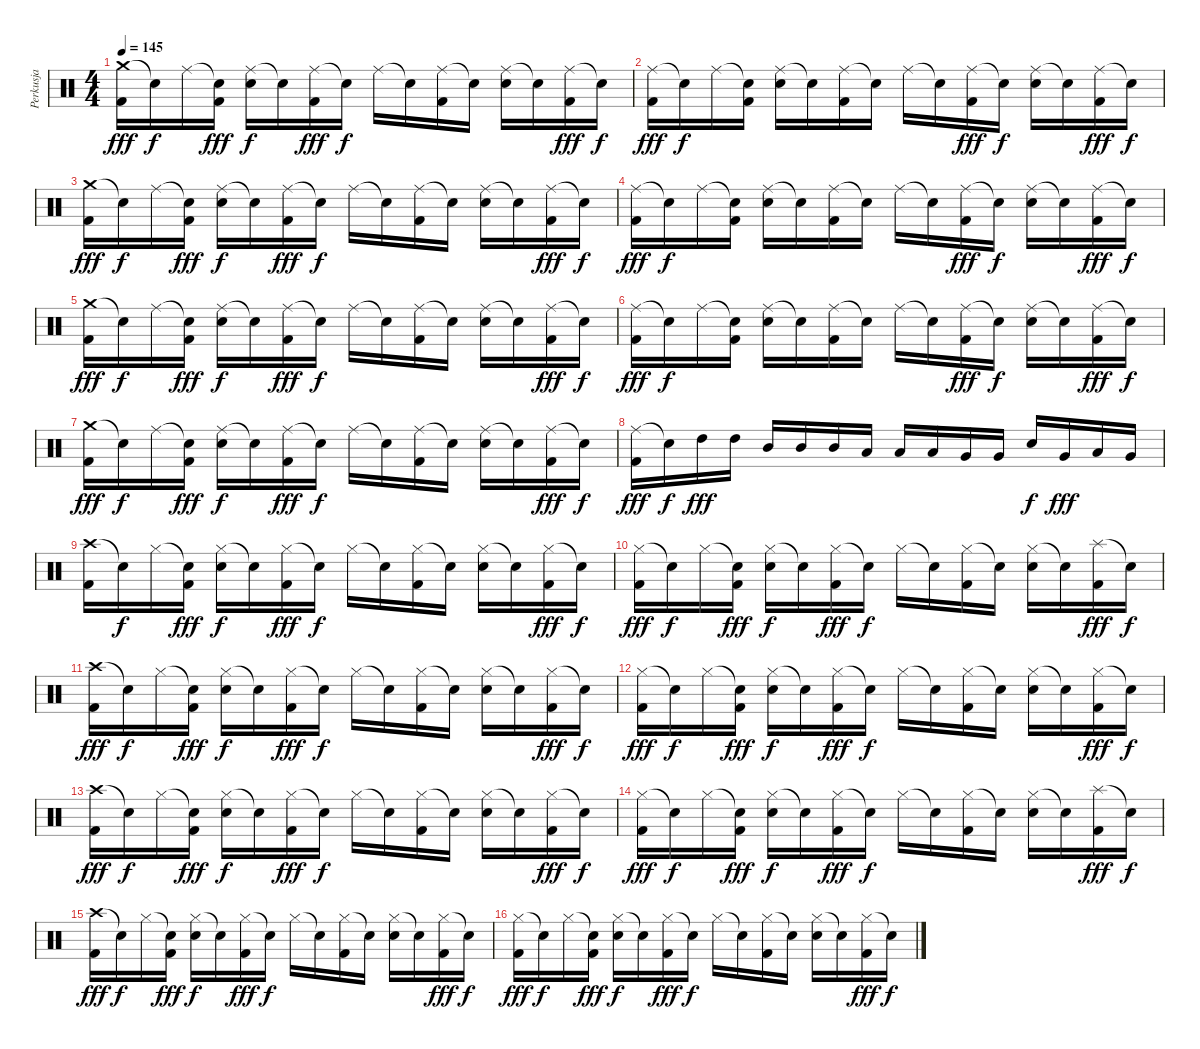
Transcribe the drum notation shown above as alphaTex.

\track ("Perkusja" "Perkusja") {instrument percussion}
\staff {score}
\articulation defaults
\ts (4 4)
\tempo 145
\clef neutral
\ks c
("Crash medium (hit)" "Kick (hit) 2").16{dy fff} "Snare (hit)"{t}.16{dy f} "Ride (middle)".16 ("Snare (hit)"{t} "Kick (hit) 2").16{dy fff} ("Ride (middle)" "Electric Snare (hit)").16{dy f} "Snare (hit)"{t}.16 ("Ride (middle)" "Kick (hit) 2").16{dy fff} "Snare (hit)"{t}.16{dy f} "Ride (middle)".16 "Snare (hit)"{t}.16 ("Ride (middle)" "Kick (hit) 2").16 "Snare (hit)"{t}.16 ("Ride (middle)" "Electric Snare (hit)").16 "Snare (hit)"{t}.16 ("Ride (middle)" "Kick (hit) 2").16{dy fff} "Snare (hit)"{t}.16{dy f} |
("Ride (middle)" "Kick (hit) 2").16{dy fff} "Snare (hit)"{t}.16{dy f} "Ride (middle)".16 ("Snare (hit)"{t} "Kick (hit) 2").16 ("Ride (middle)" "Electric Snare (hit)").16 "Snare (hit)"{t}.16 ("Ride (middle)" "Kick (hit) 2").16 "Snare (hit)"{t}.16 "Ride (middle)".16 "Snare (hit)"{t}.16 ("Ride (middle)" "Kick (hit) 2").16{dy fff} "Snare (hit)"{t}.16{dy f} ("Ride (middle)" "Electric Snare (hit)").16 "Snare (hit)"{t}.16 ("Ride (middle)" "Kick (hit) 2").16{dy fff} "Snare (hit)"{t}.16{dy f} |
("Crash medium (hit)" "Kick (hit) 2").16{dy fff} "Snare (hit)"{t}.16{dy f} "Ride (middle)".16 ("Snare (hit)"{t} "Kick (hit) 2").16{dy fff} ("Ride (middle)" "Electric Snare (hit)").16{dy f} "Snare (hit)"{t}.16 ("Ride (middle)" "Kick (hit) 2").16{dy fff} "Snare (hit)"{t}.16{dy f} "Ride (middle)".16 "Snare (hit)"{t}.16 ("Ride (middle)" "Kick (hit) 2").16 "Snare (hit)"{t}.16 ("Ride (middle)" "Electric Snare (hit)").16 "Snare (hit)"{t}.16 ("Ride (middle)" "Kick (hit) 2").16{dy fff} "Snare (hit)"{t}.16{dy f} |
("Ride (middle)" "Kick (hit) 2").16{dy fff} "Snare (hit)"{t}.16{dy f} "Ride (middle)".16 ("Snare (hit)"{t} "Kick (hit) 2").16 ("Ride (middle)" "Electric Snare (hit)").16 "Snare (hit)"{t}.16 ("Ride (middle)" "Kick (hit) 2").16 "Snare (hit)"{t}.16 "Ride (middle)".16 "Snare (hit)"{t}.16 ("Ride (middle)" "Kick (hit) 2").16{dy fff} "Snare (hit)"{t}.16{dy f} ("Ride (middle)" "Electric Snare (hit)").16 "Snare (hit)"{t}.16 ("Ride (middle)" "Kick (hit) 2").16{dy fff} "Snare (hit)"{t}.16{dy f} |
("Crash medium (hit)" "Kick (hit) 2").16{dy fff} "Snare (hit)"{t}.16{dy f} "Ride (middle)".16 ("Snare (hit)"{t} "Kick (hit) 2").16{dy fff} ("Ride (middle)" "Electric Snare (hit)").16{dy f} "Snare (hit)"{t}.16 ("Ride (middle)" "Kick (hit) 2").16{dy fff} "Snare (hit)"{t}.16{dy f} "Ride (middle)".16 "Snare (hit)"{t}.16 ("Ride (middle)" "Kick (hit) 2").16 "Snare (hit)"{t}.16 ("Ride (middle)" "Electric Snare (hit)").16 "Snare (hit)"{t}.16 ("Ride (middle)" "Kick (hit) 2").16{dy fff} "Snare (hit)"{t}.16{dy f} |
("Ride (middle)" "Kick (hit) 2").16{dy fff} "Snare (hit)"{t}.16{dy f} "Ride (middle)".16 ("Snare (hit)"{t} "Kick (hit) 2").16 ("Ride (middle)" "Electric Snare (hit)").16 "Snare (hit)"{t}.16 ("Ride (middle)" "Kick (hit) 2").16 "Snare (hit)"{t}.16 "Ride (middle)".16 "Snare (hit)"{t}.16 ("Ride (middle)" "Kick (hit) 2").16{dy fff} "Snare (hit)"{t}.16{dy f} ("Ride (middle)" "Electric Snare (hit)").16 "Snare (hit)"{t}.16 ("Ride (middle)" "Kick (hit) 2").16{dy fff} "Snare (hit)"{t}.16{dy f} |
("Crash medium (hit)" "Kick (hit) 2").16{dy fff} "Snare (hit)"{t}.16{dy f} "Ride (middle)".16 ("Snare (hit)"{t} "Kick (hit) 2").16{dy fff} ("Ride (middle)" "Electric Snare (hit)").16{dy f} "Snare (hit)"{t}.16 ("Ride (middle)" "Kick (hit) 2").16{dy fff} "Snare (hit)"{t}.16{dy f} "Ride (middle)".16 "Snare (hit)"{t}.16 ("Ride (middle)" "Kick (hit) 2").16 "Snare (hit)"{t}.16 ("Ride (middle)" "Electric Snare (hit)").16 "Snare (hit)"{t}.16 ("Ride (middle)" "Kick (hit) 2").16{dy fff} "Snare (hit)"{t}.16{dy f} |
("Ride (middle)" "Kick (hit) 2").16{dy fff} "Snare (hit)"{t}.16{dy f} "High Tom (hit)".16{dy fff} "High Tom (hit)".16 "Mid Tom (hit)".16 "Mid Tom (hit)".16 "Mid Tom (hit)".16 "Low Tom (hit)".16 "Low Tom (hit)".16 "Low Tom (hit)".16 "Very Low Tom (hit)".16 "Very Low Tom (hit)".16 "Electric Snare (hit)".16{dy f} "Very Low Tom (hit)".16{dy fff} "Low Tom (hit)".16 "Very Low Tom (hit)".16 |
("Crash high (hit)" "Kick (hit) 2").16 "Snare (hit)"{t}.16{dy f} "Hi-Hat (closed)".16 ("Snare (hit)"{t} "Kick (hit) 2").16{dy fff} ("Hi-Hat (closed)" "Electric Snare (hit)").16{dy f} "Snare (hit)"{t}.16 ("Hi-Hat (closed)" "Kick (hit) 2").16{dy fff} "Snare (hit)"{t}.16{dy f} "Hi-Hat (closed)".16 "Snare (hit)"{t}.16 ("Hi-Hat (closed)" "Kick (hit) 2").16 "Snare (hit)"{t}.16 ("Hi-Hat (closed)" "Electric Snare (hit)").16 "Snare (hit)"{t}.16 ("Hi-Hat (closed)" "Kick (hit) 2").16{dy fff} "Snare (hit)"{t}.16{dy f} |
("Hi-Hat (closed)" "Kick (hit) 2").16{dy fff} "Snare (hit)"{t}.16{dy f} "Hi-Hat (closed)".16 ("Snare (hit)"{t} "Kick (hit) 2").16{dy fff} ("Hi-Hat (closed)" "Electric Snare (hit)").16{dy f} "Snare (hit)"{t}.16 ("Hi-Hat (closed)" "Kick (hit) 2").16{dy fff} "Snare (hit)"{t}.16{dy f} "Hi-Hat (closed)".16 "Snare (hit)"{t}.16 ("Hi-Hat (closed)" "Kick (hit) 2").16 "Snare (hit)"{t}.16 ("Hi-Hat (closed)" "Electric Snare (hit)").16 "Snare (hit)"{t}.16 ("Splash (hit)" "Kick (hit) 2").16{dy fff} "Snare (hit)"{t}.16{dy f} |
("Crash high (hit)" "Kick (hit) 2").16{dy fff} "Snare (hit)"{t}.16{dy f} "Hi-Hat (closed)".16 ("Snare (hit)"{t} "Kick (hit) 2").16{dy fff} ("Hi-Hat (closed)" "Electric Snare (hit)").16{dy f} "Snare (hit)"{t}.16 ("Hi-Hat (closed)" "Kick (hit) 2").16{dy fff} "Snare (hit)"{t}.16{dy f} "Hi-Hat (closed)".16 "Snare (hit)"{t}.16 ("Hi-Hat (closed)" "Kick (hit) 2").16 "Snare (hit)"{t}.16 ("Hi-Hat (closed)" "Electric Snare (hit)").16 "Snare (hit)"{t}.16 ("Hi-Hat (closed)" "Kick (hit) 2").16{dy fff} "Snare (hit)"{t}.16{dy f} |
("Hi-Hat (closed)" "Kick (hit) 2").16{dy fff} "Snare (hit)"{t}.16{dy f} "Hi-Hat (closed)".16 ("Snare (hit)"{t} "Kick (hit) 2").16{dy fff} ("Hi-Hat (closed)" "Electric Snare (hit)").16{dy f} "Snare (hit)"{t}.16 ("Hi-Hat (closed)" "Kick (hit) 2").16{dy fff} "Snare (hit)"{t}.16{dy f} "Hi-Hat (closed)".16 "Snare (hit)"{t}.16 ("Hi-Hat (closed)" "Kick (hit) 2").16 "Snare (hit)"{t}.16 ("Hi-Hat (closed)" "Electric Snare (hit)").16 "Snare (hit)"{t}.16 ("Hi-Hat (closed)" "Kick (hit) 2").16{dy fff} "Snare (hit)"{t}.16{dy f} |
("Crash high (hit)" "Kick (hit) 2").16{dy fff} "Snare (hit)"{t}.16{dy f} "Hi-Hat (closed)".16 ("Snare (hit)"{t} "Kick (hit) 2").16{dy fff} ("Hi-Hat (closed)" "Electric Snare (hit)").16{dy f} "Snare (hit)"{t}.16 ("Hi-Hat (closed)" "Kick (hit) 2").16{dy fff} "Snare (hit)"{t}.16{dy f} "Hi-Hat (closed)".16 "Snare (hit)"{t}.16 ("Hi-Hat (closed)" "Kick (hit) 2").16 "Snare (hit)"{t}.16 ("Hi-Hat (closed)" "Electric Snare (hit)").16 "Snare (hit)"{t}.16 ("Hi-Hat (closed)" "Kick (hit) 2").16{dy fff} "Snare (hit)"{t}.16{dy f} |
("Hi-Hat (closed)" "Kick (hit) 2").16{dy fff} "Snare (hit)"{t}.16{dy f} "Hi-Hat (closed)".16 ("Snare (hit)"{t} "Kick (hit) 2").16{dy fff} ("Hi-Hat (closed)" "Electric Snare (hit)").16{dy f} "Snare (hit)"{t}.16 ("Hi-Hat (closed)" "Kick (hit) 2").16{dy fff} "Snare (hit)"{t}.16{dy f} "Hi-Hat (closed)".16 "Snare (hit)"{t}.16 ("Hi-Hat (closed)" "Kick (hit) 2").16 "Snare (hit)"{t}.16 ("Hi-Hat (closed)" "Electric Snare (hit)").16 "Snare (hit)"{t}.16 ("Splash (hit)" "Kick (hit) 2").16{dy fff} "Snare (hit)"{t}.16{dy f} |
("Crash high (hit)" "Kick (hit) 2").16{dy fff} "Snare (hit)"{t}.16{dy f} "Hi-Hat (closed)".16 ("Snare (hit)"{t} "Kick (hit) 2").16{dy fff} ("Hi-Hat (closed)" "Electric Snare (hit)").16{dy f} "Snare (hit)"{t}.16 ("Hi-Hat (closed)" "Kick (hit) 2").16{dy fff} "Snare (hit)"{t}.16{dy f} "Hi-Hat (closed)".16 "Snare (hit)"{t}.16 ("Hi-Hat (closed)" "Kick (hit) 2").16 "Snare (hit)"{t}.16 ("Hi-Hat (closed)" "Electric Snare (hit)").16 "Snare (hit)"{t}.16 ("Hi-Hat (closed)" "Kick (hit) 2").16{dy fff} "Snare (hit)"{t}.16{dy f} |
("Hi-Hat (closed)" "Kick (hit) 2").16{dy fff} "Snare (hit)"{t}.16{dy f} "Hi-Hat (closed)".16 ("Snare (hit)"{t} "Kick (hit) 2").16{dy fff} ("Hi-Hat (closed)" "Electric Snare (hit)").16{dy f} "Snare (hit)"{t}.16 ("Hi-Hat (closed)" "Kick (hit) 2").16{dy fff} "Snare (hit)"{t}.16{dy f} "Hi-Hat (closed)".16 "Snare (hit)"{t}.16 ("Hi-Hat (closed)" "Kick (hit) 2").16 "Snare (hit)"{t}.16 ("Hi-Hat (closed)" "Electric Snare (hit)").16 "Snare (hit)"{t}.16 ("Hi-Hat (closed)" "Kick (hit) 2").16{dy fff} "Snare (hit)"{t}.16{dy f}
